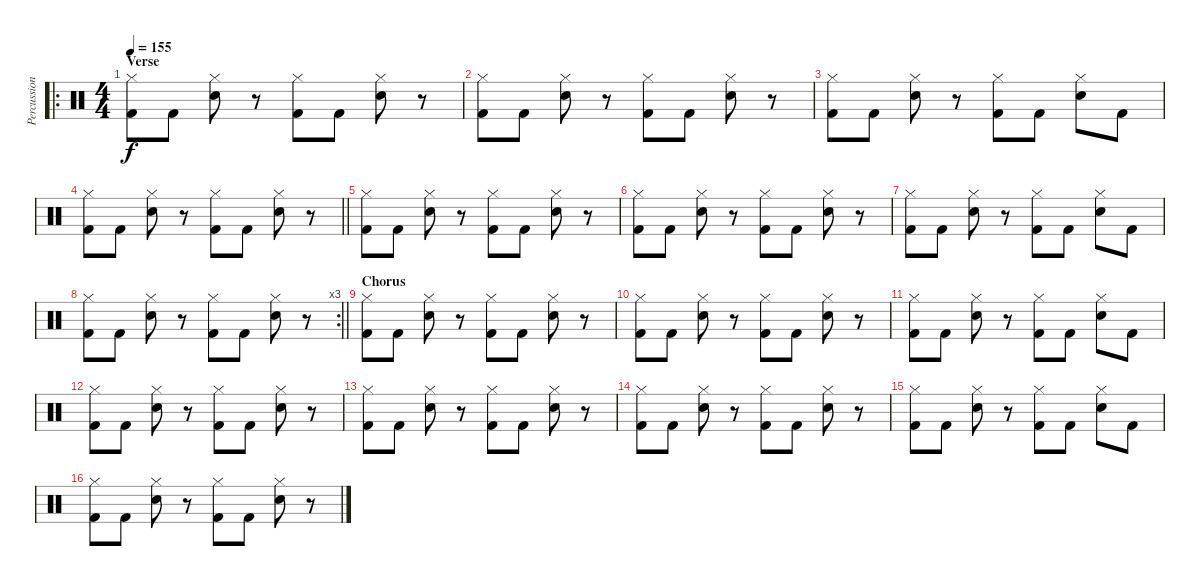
\track ("Percussions" "Percussion") {mute instrument percussion}
\staff {score}
\articulation defaults
\ro
\ts (4 4)
\section ("" "Verse")
\tempo 155
\clef neutral
\ks c
("Hi-Hat (closed)" "Kick (hit) 2").8{dy f} "Kick (hit) 2".8 ("Hi-Hat (closed)" "Electric Snare (hit)").8 r.8 ("Hi-Hat (closed)" "Kick (hit) 2").8 "Kick (hit) 2".8 ("Hi-Hat (closed)" "Electric Snare (hit)").8 r.8 |
("Hi-Hat (closed)" "Kick (hit) 2").8 "Kick (hit) 2".8 ("Hi-Hat (closed)" "Electric Snare (hit)").8 r.8 ("Hi-Hat (closed)" "Kick (hit) 2").8 "Kick (hit) 2".8 ("Hi-Hat (closed)" "Electric Snare (hit)").8 r.8 |
("Hi-Hat (closed)" "Kick (hit) 2").8 "Kick (hit) 2".8 ("Hi-Hat (closed)" "Electric Snare (hit)").8 r.8 ("Hi-Hat (closed)" "Kick (hit) 2").8 "Kick (hit) 2".8 ("Hi-Hat (closed)" "Electric Snare (hit)").8 "Kick (hit) 2".8 |
\barLineRight lightlight
("Hi-Hat (closed)" "Kick (hit) 2").8 "Kick (hit) 2".8 ("Hi-Hat (closed)" "Electric Snare (hit)").8 r.8 ("Hi-Hat (closed)" "Kick (hit) 2").8 "Kick (hit) 2".8 ("Hi-Hat (closed)" "Electric Snare (hit)").8 r.8 |
("Hi-Hat (closed)" "Kick (hit) 2").8 "Kick (hit) 2".8 ("Hi-Hat (closed)" "Electric Snare (hit)").8 r.8 ("Hi-Hat (closed)" "Kick (hit) 2").8 "Kick (hit) 2".8 ("Hi-Hat (closed)" "Electric Snare (hit)").8 r.8 |
("Hi-Hat (closed)" "Kick (hit) 2").8 "Kick (hit) 2".8 ("Hi-Hat (closed)" "Electric Snare (hit)").8 r.8 ("Hi-Hat (closed)" "Kick (hit) 2").8 "Kick (hit) 2".8 ("Hi-Hat (closed)" "Electric Snare (hit)").8 r.8 |
("Hi-Hat (closed)" "Kick (hit) 2").8 "Kick (hit) 2".8 ("Hi-Hat (closed)" "Electric Snare (hit)").8 r.8 ("Hi-Hat (closed)" "Kick (hit) 2").8 "Kick (hit) 2".8 ("Hi-Hat (closed)" "Electric Snare (hit)").8 "Kick (hit) 2".8 |
\rc 3
\barLineRight lightlight
("Hi-Hat (closed)" "Kick (hit) 2").8 "Kick (hit) 2".8 ("Hi-Hat (closed)" "Electric Snare (hit)").8 r.8 ("Hi-Hat (closed)" "Kick (hit) 2").8 "Kick (hit) 2".8 ("Hi-Hat (closed)" "Electric Snare (hit)").8 r.8 |
\section ("" "Chorus")
("Hi-Hat (closed)" "Kick (hit) 2").8 "Kick (hit) 2".8 ("Hi-Hat (closed)" "Electric Snare (hit)").8 r.8 ("Hi-Hat (closed)" "Kick (hit) 2").8 "Kick (hit) 2".8 ("Hi-Hat (closed)" "Electric Snare (hit)").8 r.8 |
("Hi-Hat (closed)" "Kick (hit) 2").8 "Kick (hit) 2".8 ("Hi-Hat (closed)" "Electric Snare (hit)").8 r.8 ("Hi-Hat (closed)" "Kick (hit) 2").8 "Kick (hit) 2".8 ("Hi-Hat (closed)" "Electric Snare (hit)").8 r.8 |
("Hi-Hat (closed)" "Kick (hit) 2").8 "Kick (hit) 2".8 ("Hi-Hat (closed)" "Electric Snare (hit)").8 r.8 ("Hi-Hat (closed)" "Kick (hit) 2").8 "Kick (hit) 2".8 ("Hi-Hat (closed)" "Electric Snare (hit)").8 "Kick (hit) 2".8 |
("Hi-Hat (closed)" "Kick (hit) 2").8 "Kick (hit) 2".8 ("Hi-Hat (closed)" "Electric Snare (hit)").8 r.8 ("Hi-Hat (closed)" "Kick (hit) 2").8 "Kick (hit) 2".8 ("Hi-Hat (closed)" "Electric Snare (hit)").8 r.8 |
("Hi-Hat (closed)" "Kick (hit) 2").8 "Kick (hit) 2".8 ("Hi-Hat (closed)" "Electric Snare (hit)").8 r.8 ("Hi-Hat (closed)" "Kick (hit) 2").8 "Kick (hit) 2".8 ("Hi-Hat (closed)" "Electric Snare (hit)").8 r.8 |
("Hi-Hat (closed)" "Kick (hit) 2").8 "Kick (hit) 2".8 ("Hi-Hat (closed)" "Electric Snare (hit)").8 r.8 ("Hi-Hat (closed)" "Kick (hit) 2").8 "Kick (hit) 2".8 ("Hi-Hat (closed)" "Electric Snare (hit)").8 r.8 |
("Hi-Hat (closed)" "Kick (hit) 2").8 "Kick (hit) 2".8 ("Hi-Hat (closed)" "Electric Snare (hit)").8 r.8 ("Hi-Hat (closed)" "Kick (hit) 2").8 "Kick (hit) 2".8 ("Hi-Hat (closed)" "Electric Snare (hit)").8 "Kick (hit) 2".8 |
("Hi-Hat (closed)" "Kick (hit) 2").8 "Kick (hit) 2".8 ("Hi-Hat (closed)" "Electric Snare (hit)").8 r.8 ("Hi-Hat (closed)" "Kick (hit) 2").8 "Kick (hit) 2".8 ("Hi-Hat (closed)" "Electric Snare (hit)").8 r.8
